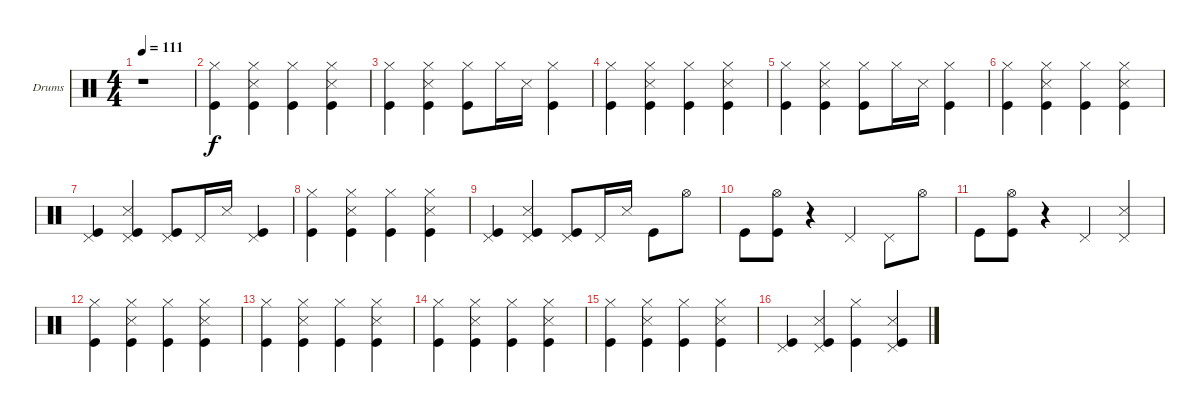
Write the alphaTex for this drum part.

\bracketExtendMode groupsimilarinstruments
\firstSystemTrackNameOrientation horizontal
\otherSystemsTrackNameOrientation horizontal
\track ("Drumkit" "Drums") {instrument percussion}
\staff {score}
\articulation defaults
\ts (4 4)
\tempo 111
\clef neutral
\ks c
r.1{dy f} |
("Hi-Hat (closed)" "Kick (hit)").4 ("Hi-Hat (closed)" "Snare (side stick) 3" "Kick (hit)").4 ("Hi-Hat (closed)" "Kick (hit)").4 ("Hi-Hat (closed)" "Snare (side stick) 3" "Kick (hit)").4 |
("Hi-Hat (closed)" "Kick (hit)").4 ("Hi-Hat (closed)" "Snare (side stick) 3" "Kick (hit)").4 ("Hi-Hat (closed)" "Kick (hit)").8 "Hi-Hat (closed)".16 "Snare (side stick) 3".16 ("Hi-Hat (closed)" "Kick (hit)").4 |
("Hi-Hat (closed)" "Kick (hit)").4 ("Hi-Hat (closed)" "Snare (side stick) 3" "Kick (hit)").4 ("Hi-Hat (closed)" "Kick (hit)").4 ("Hi-Hat (closed)" "Snare (side stick) 3" "Kick (hit)").4 |
("Hi-Hat (closed)" "Kick (hit)").4 ("Hi-Hat (closed)" "Snare (side stick) 3" "Kick (hit)").4 ("Hi-Hat (closed)" "Kick (hit)").8 "Hi-Hat (closed)".16 "Snare (side stick) 3".16 ("Hi-Hat (closed)" "Kick (hit)").4 |
("Hi-Hat (closed)" "Kick (hit)").4 ("Hi-Hat (closed)" "Snare (side stick) 3" "Kick (hit)").4 ("Hi-Hat (closed)" "Kick (hit)").4 ("Hi-Hat (closed)" "Snare (side stick) 3" "Kick (hit)").4 |
("Pedal Hi-Hat (hit)" "Kick (hit)").4 ("Pedal Hi-Hat (hit)" "Snare (side stick) 3" "Kick (hit)").4 ("Pedal Hi-Hat (hit)" "Kick (hit)").8 "Pedal Hi-Hat (hit)".16 "Snare (side stick) 3".16 ("Pedal Hi-Hat (hit)" "Kick (hit)").4 |
("Hi-Hat (closed)" "Kick (hit)").4 ("Hi-Hat (closed)" "Snare (side stick) 3" "Kick (hit)").4 ("Hi-Hat (closed)" "Kick (hit)").4 ("Hi-Hat (closed)" "Snare (side stick) 3" "Kick (hit)").4 |
("Pedal Hi-Hat (hit)" "Kick (hit)").4 ("Pedal Hi-Hat (hit)" "Snare (side stick) 3" "Kick (hit)").4 ("Pedal Hi-Hat (hit)" "Kick (hit)").8 "Pedal Hi-Hat (hit)".16 "Snare (side stick) 3".16 "Kick (hit)".8 "Hi-Hat (open)".8 |
"Kick (hit)".8 ("Hi-Hat (open)" "Kick (hit)").8 r.4 "Pedal Hi-Hat (hit)".4 "Pedal Hi-Hat (hit)".8 "Hi-Hat (open)".8 |
"Kick (hit)".8 ("Hi-Hat (open)" "Kick (hit)").8 r.4 "Pedal Hi-Hat (hit)".4 ("Pedal Hi-Hat (hit)" "Snare (side stick) 3").4 |
("Hi-Hat (closed)" "Kick (hit)").4 ("Hi-Hat (closed)" "Snare (side stick) 3" "Kick (hit)").4 ("Hi-Hat (closed)" "Kick (hit)").4 ("Hi-Hat (closed)" "Snare (side stick) 3" "Kick (hit)").4 |
("Hi-Hat (closed)" "Kick (hit)").4 ("Hi-Hat (closed)" "Snare (side stick) 3" "Kick (hit)").4 ("Hi-Hat (closed)" "Kick (hit)").4 ("Hi-Hat (closed)" "Snare (side stick) 3" "Kick (hit)").4 |
("Hi-Hat (closed)" "Kick (hit)").4 ("Hi-Hat (closed)" "Snare (side stick) 3" "Kick (hit)").4 ("Hi-Hat (closed)" "Kick (hit)").4 ("Hi-Hat (closed)" "Snare (side stick) 3" "Kick (hit)").4 |
("Hi-Hat (closed)" "Kick (hit)").4 ("Hi-Hat (closed)" "Snare (side stick) 3" "Kick (hit)").4 ("Hi-Hat (closed)" "Kick (hit)").4 ("Hi-Hat (closed)" "Snare (side stick) 3" "Kick (hit)").4 |
("Pedal Hi-Hat (hit)" "Kick (hit)").4 ("Pedal Hi-Hat (hit)" "Snare (side stick) 3" "Kick (hit)").4 ("Hi-Hat (closed)" "Kick (hit)").4 ("Pedal Hi-Hat (hit)" "Snare (side stick) 3" "Kick (hit)").4
